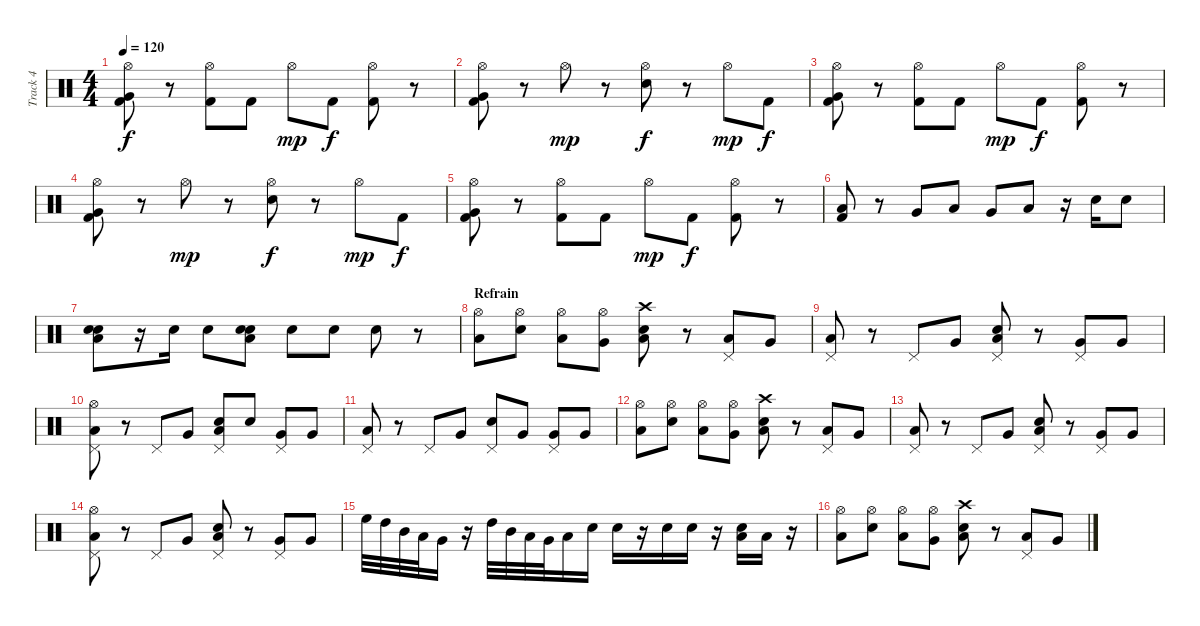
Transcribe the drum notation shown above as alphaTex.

\track ("Track 4" "Track 4") {instrument percussion}
\staff {score}
\articulation defaults
\ts (4 4)
\tempo 120
\clef neutral
\ks c
("Hi-Hat (open)" "Kick (hit) 2" "Very Low Tom (hit)").8{dy f} r.8 ("Hi-Hat (open)" "Kick (hit) 2").8 "Kick (hit) 2".8 "Hi-Hat (open)".8{dy mp} "Kick (hit) 2".8{dy f} ("Hi-Hat (open)" "Kick (hit) 2").8 r.8 |
("Hi-Hat (open)" "Kick (hit) 2" "Very Low Tom (hit)").8 r.8 "Hi-Hat (open)".8{dy mp} r.8 ("Hi-Hat (open)" "Snare (hit) 2").8{dy f} r.8 "Hi-Hat (open)".8{dy mp} "Kick (hit) 2".8{dy f} |
("Hi-Hat (open)" "Kick (hit) 2" "Very Low Tom (hit)").8 r.8 ("Hi-Hat (open)" "Kick (hit) 2").8 "Kick (hit) 2".8 "Hi-Hat (open)".8{dy mp} "Kick (hit) 2".8{dy f} ("Hi-Hat (open)" "Kick (hit) 2").8 r.8 |
("Hi-Hat (open)" "Kick (hit) 2" "Very Low Tom (hit)").8 r.8 "Hi-Hat (open)".8{dy mp} r.8 ("Hi-Hat (open)" "Snare (hit) 2").8{dy f} r.8 "Hi-Hat (open)".8{dy mp} "Kick (hit) 2".8{dy f} |
("Hi-Hat (open)" "Kick (hit) 2" "Very Low Tom (hit)").8 r.8 ("Hi-Hat (open)" "Kick (hit) 2").8 "Kick (hit) 2".8 "Hi-Hat (open)".8{dy mp} "Kick (hit) 2".8{dy f} ("Hi-Hat (open)" "Kick (hit) 2").8 r.8 |
("Low Tom (hit)" "Kick (hit) 2").8 r.8 "Very Low Tom (hit)".8 "Low Floor Tom (hit)".8 "Very Low Tom (hit)".8 "Low Tom (hit)".8 r.16 "Electric Snare (hit)".16 "Electric Snare (hit)".8 |
("Low Tom (hit)" "Electric Snare (hit)" "Snare (hit) 2").8 r.16 "Electric Snare (hit)".16 "Electric Snare (hit)".8 ("Low Tom (hit)" "Snare (hit) 2" "Electric Snare (hit)").8 "Electric Snare (hit)".8 "Electric Snare (hit)".8 "Electric Snare (hit)".8 r.8 |
\section ("" "Refrain")
("Low Tom (hit)" "Hi-Hat (open)").8 ("Electric Snare (hit)" "Hi-Hat (open)").8 ("Low Tom (hit)" "Hi-Hat (open)").8 ("Very Low Tom (hit)" "Hi-Hat (open)").8 ("Low Tom (hit)" "Electric Snare (hit)" "Crash high (hit)").8 r.8 ("Pedal Hi-Hat (hit)" "Low Floor Tom (hit)").8 "Very Low Tom (hit)".8 |
("Pedal Hi-Hat (hit)" "Low Tom (hit)").8 r.8 "Pedal Hi-Hat (hit)".8 "Very Low Tom (hit)".8 ("Pedal Hi-Hat (hit)" "Low Tom (hit)" "Electric Snare (hit)").8 r.8 ("Pedal Hi-Hat (hit)" "Very Low Tom (hit)").8 "Very Low Tom (hit)".8 |
("Pedal Hi-Hat (hit)" "Low Tom (hit)" "Hi-Hat (open)").8 r.8 "Pedal Hi-Hat (hit)".8 "Very Low Tom (hit)".8 ("Pedal Hi-Hat (hit)" "Low Tom (hit)" "Electric Snare (hit)").8 "Electric Snare (hit)".8 ("Pedal Hi-Hat (hit)" "Very Low Tom (hit)").8 "Very Low Tom (hit)".8 |
("Pedal Hi-Hat (hit)" "Low Tom (hit)").8 r.8 "Pedal Hi-Hat (hit)".8 "Very Low Tom (hit)".8 ("Pedal Hi-Hat (hit)" "Electric Snare (hit)").8 "Very Low Tom (hit)".8 ("Pedal Hi-Hat (hit)" "Very Low Tom (hit)").8 "Very Low Tom (hit)".8 |
("Low Tom (hit)" "Hi-Hat (open)").8 ("Electric Snare (hit)" "Hi-Hat (open)").8 ("Low Tom (hit)" "Hi-Hat (open)").8 ("Very Low Tom (hit)" "Hi-Hat (open)").8 ("Low Tom (hit)" "Electric Snare (hit)" "Crash high (hit)").8 r.8 ("Pedal Hi-Hat (hit)" "Low Floor Tom (hit)").8 "Very Low Tom (hit)".8 |
("Pedal Hi-Hat (hit)" "Low Tom (hit)").8 r.8 "Pedal Hi-Hat (hit)".8 "Very Low Tom (hit)".8 ("Pedal Hi-Hat (hit)" "Low Tom (hit)" "Electric Snare (hit)").8 r.8 ("Pedal Hi-Hat (hit)" "Very Low Tom (hit)").8 "Very Low Tom (hit)".8 |
("Pedal Hi-Hat (hit)" "Low Tom (hit)" "Hi-Hat (open)").8 r.8 "Pedal Hi-Hat (hit)".8 "Very Low Tom (hit)".8 ("Pedal Hi-Hat (hit)" "Low Tom (hit)" "Electric Snare (hit)").8 r.8 ("Pedal Hi-Hat (hit)" "Very Low Tom (hit)").8 "Very Low Tom (hit)".8 |
"High Floor Tom (hit)".32 "High Tom (hit)".32 "Mid Tom (hit)".32 "Low Tom (hit)".32 "Very Low Tom (hit)".16 r.16 "High Tom (hit)".32 "Mid Tom (hit)".32 "Low Tom (hit)".32 "Very Low Tom (hit)".32 "Low Floor Tom (hit)".16 "Electric Snare (hit)".16 "Electric Snare (hit)".16 r.16 "Electric Snare (hit)".16 "Electric Snare (hit)".16 r.16 ("Low Tom (hit)" "Electric Snare (hit)").16 "Low Tom (hit)".16 r.16 |
("Low Tom (hit)" "Hi-Hat (open)").8 ("Electric Snare (hit)" "Hi-Hat (open)").8 ("Low Tom (hit)" "Hi-Hat (open)").8 ("Very Low Tom (hit)" "Hi-Hat (open)").8 ("Low Tom (hit)" "Electric Snare (hit)" "Crash high (hit)").8 r.8 ("Pedal Hi-Hat (hit)" "Low Floor Tom (hit)").8 "Very Low Tom (hit)".8
